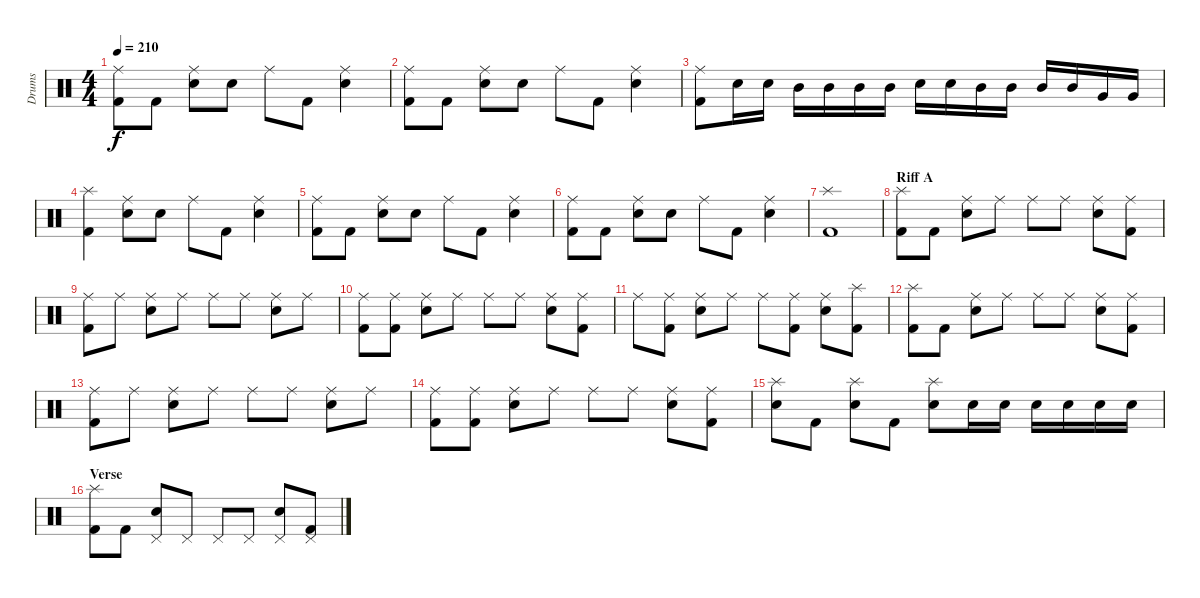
\track ("Drums" "Drums") {instrument percussion}
\staff {score}
\articulation defaults
\ts (4 4)
\tempo 210
\clef neutral
\ks c
("Ride (middle)" "Kick (hit) 2").8{dy f} "Kick (hit) 2".8 ("Ride (middle)" "Electric Snare (hit)").8 "Electric Snare (hit)".8 "Ride (middle)".8 "Kick (hit) 2".8 ("Ride (middle)" "Electric Snare (hit)").4 |
("Ride (middle)" "Kick (hit) 2").8 "Kick (hit) 2".8 ("Ride (middle)" "Electric Snare (hit)").8 "Electric Snare (hit)".8 "Ride (middle)".8 "Kick (hit) 2".8 ("Ride (middle)" "Electric Snare (hit)").4 |
("Ride (middle)" "Kick (hit) 2").8 "Electric Snare (hit)".16 "Electric Snare (hit)".16 "Mid Tom (hit)".16 "Mid Tom (hit)".16 "Mid Tom (hit)".16 "Mid Tom (hit)".16 "Electric Snare (hit)".16 "Electric Snare (hit)".16 "Mid Tom (hit)".16 "Mid Tom (hit)".16 "Mid Tom (hit)".16 "Mid Tom (hit)".16 "Very Low Tom (hit)".16 "Very Low Tom (hit)".16 |
("Splash (hit)" "Kick (hit) 2").4 ("Ride (middle)" "Electric Snare (hit)").8 "Electric Snare (hit)".8 "Ride (middle)".8 "Kick (hit) 2".8 ("Ride (middle)" "Electric Snare (hit)").4 |
("Ride (middle)" "Kick (hit) 2").8 "Kick (hit) 2".8 ("Ride (middle)" "Electric Snare (hit)").8 "Electric Snare (hit)".8 "Ride (middle)".8 "Kick (hit) 2".8 ("Ride (middle)" "Electric Snare (hit)").4 |
("Ride (middle)" "Kick (hit) 2").8 "Kick (hit) 2".8 ("Ride (middle)" "Electric Snare (hit)").8 "Electric Snare (hit)".8 "Ride (middle)".8 "Kick (hit) 2".8 ("Ride (middle)" "Electric Snare (hit)").4 |
("Splash (hit)" "Kick (hit) 2").1 |
\section ("" "Riff A")
("Splash (hit)" "Kick (hit) 2").8 "Kick (hit) 2".8 ("Ride (middle)" "Electric Snare (hit)").8 "Ride (middle)".8 "Ride (middle)".8 "Ride (middle)".8 ("Ride (middle)" "Electric Snare (hit)").8 ("Ride (middle)" "Kick (hit) 2").8 |
("Ride (middle)" "Kick (hit) 2").8 "Ride (middle)".8 ("Ride (middle)" "Electric Snare (hit)").8 "Ride (middle)".8 "Ride (middle)".8 "Ride (middle)".8 ("Ride (middle)" "Electric Snare (hit)").8 "Ride (middle)".8 |
("Ride (middle)" "Kick (hit) 2").8 ("Ride (middle)" "Kick (hit) 2").8 ("Ride (middle)" "Electric Snare (hit)").8 "Ride (middle)".8 "Ride (middle)".8 "Ride (middle)".8 ("Ride (middle)" "Electric Snare (hit)").8 ("Ride (middle)" "Kick (hit) 2").8 |
"Ride (middle)".8 ("Ride (middle)" "Kick (hit) 2").8 ("Ride (middle)" "Electric Snare (hit)").8 "Ride (middle)".8 "Ride (middle)".8 ("Ride (middle)" "Kick (hit) 2").8 ("Ride (middle)" "Electric Snare (hit)").8 ("Splash (hit)" "Kick (hit) 2").8 |
("Splash (hit)" "Kick (hit) 2").8 "Kick (hit) 2".8 ("Ride (middle)" "Electric Snare (hit)").8 "Ride (middle)".8 "Ride (middle)".8 "Ride (middle)".8 ("Ride (middle)" "Electric Snare (hit)").8 ("Ride (middle)" "Kick (hit) 2").8 |
("Ride (middle)" "Kick (hit) 2").8 "Ride (middle)".8 ("Ride (middle)" "Electric Snare (hit)").8 "Ride (middle)".8 "Ride (middle)".8 "Ride (middle)".8 ("Ride (middle)" "Electric Snare (hit)").8 "Ride (middle)".8 |
("Ride (middle)" "Kick (hit) 2").8 ("Ride (middle)" "Kick (hit) 2").8 ("Ride (middle)" "Electric Snare (hit)").8 "Ride (middle)".8 "Ride (middle)".8 "Ride (middle)".8 ("Ride (middle)" "Electric Snare (hit)").8 ("Ride (middle)" "Kick (hit) 2").8 |
("Splash (hit)" "Electric Snare (hit)").8 "Kick (hit) 2".8 ("Splash (hit)" "Electric Snare (hit)").8 "Kick (hit) 2".8 ("Splash (hit)" "Electric Snare (hit)").8 "Electric Snare (hit)".16 "Electric Snare (hit)".16 "Electric Snare (hit)".16 "Electric Snare (hit)".16 "Electric Snare (hit)".16 "Electric Snare (hit)".16 |
\section ("" "Verse")
("Splash (hit)" "Kick (hit) 2").8 "Kick (hit) 2".8 ("Pedal Hi-Hat (hit)" "Electric Snare (hit)").8 "Pedal Hi-Hat (hit)".8 "Pedal Hi-Hat (hit)".8 "Pedal Hi-Hat (hit)".8 ("Pedal Hi-Hat (hit)" "Electric Snare (hit)").8 ("Pedal Hi-Hat (hit)" "Kick (hit) 2").8
